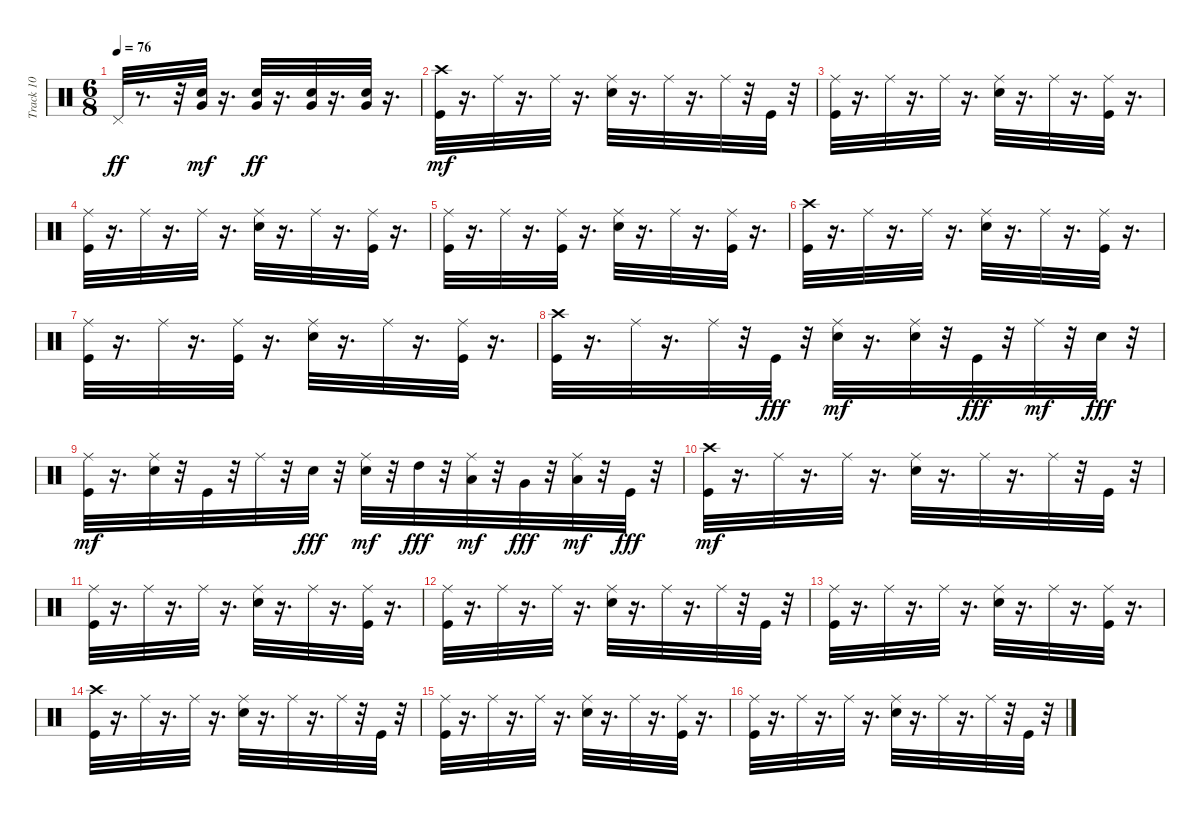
\track ("Track 10" "Track 10") {instrument percussion}
\staff {score}
\articulation defaults
\ts (6 8)
\tempo 76
\clef neutral
\ks c "Pedal Hi-Hat (hit)".32{dy ff}
r.8{d} r.32 ("Electric Snare (hit)" "Very Low Tom (hit)").32{dy mf} r.16{d} ("Electric Snare (hit)" "Very Low Tom (hit)").32{dy ff} r.16{d} ("Electric Snare (hit)" "Very Low Tom (hit)").32 r.16{d} ("Electric Snare (hit)" "Very Low Tom (hit)").32 r.16{d} |
("Kick (hit)" "Crash high (hit)").32{dy mf} r.16{d} "Ride (middle)".32 r.16{d} "Ride (middle)".32 r.16{d} ("Electric Snare (hit)" "Ride (middle)").32 r.16{d} "Ride (middle)".32 r.16{d} "Ride (middle)".32 r.32 "Kick (hit)".32 r.32 |
("Kick (hit)" "Ride (middle)").32 r.16{d} "Ride (middle)".32 r.16{d} "Ride (middle)".32 r.16{d} ("Electric Snare (hit)" "Ride (middle)").32 r.16{d} "Ride (middle)".32 r.16{d} ("Kick (hit)" "Ride (middle)").32 r.16{d} |
("Kick (hit)" "Ride (middle)").32 r.16{d} "Ride (middle)".32 r.16{d} "Ride (middle)".32 r.16{d} ("Electric Snare (hit)" "Ride (middle)").32 r.16{d} "Ride (middle)".32 r.16{d} ("Kick (hit)" "Ride (middle)").32 r.16{d} |
("Kick (hit)" "Ride (middle)").32 r.16{d} "Ride (middle)".32 r.16{d} ("Kick (hit)" "Ride (middle)").32 r.16{d} ("Electric Snare (hit)" "Ride (middle)").32 r.16{d} "Ride (middle)".32 r.16{d} ("Kick (hit)" "Ride (middle)").32 r.16{d} |
("Kick (hit)" "Crash high (hit)").32 r.16{d} "Ride (middle)".32 r.16{d} "Ride (middle)".32 r.16{d} ("Electric Snare (hit)" "Ride (middle)").32 r.16{d} "Ride (middle)".32 r.16{d} ("Kick (hit)" "Ride (middle)").32 r.16{d} |
("Kick (hit)" "Ride (middle)").32 r.16{d} "Ride (middle)".32 r.16{d} ("Kick (hit)" "Ride (middle)").32 r.16{d} ("Electric Snare (hit)" "Ride (middle)").32 r.16{d} "Ride (middle)".32 r.16{d} ("Kick (hit)" "Ride (middle)").32 r.16{d} |
("Kick (hit)" "Crash high (hit)").32 r.16{d} "Ride (middle)".32 r.16{d} "Ride (middle)".32 r.32 "Kick (hit)".32{dy fff} r.32 ("Electric Snare (hit)" "Ride (middle)").32{dy mf} r.16{d} ("Electric Snare (hit)" "Ride (middle)").32 r.32 "Kick (hit)".32{dy fff} r.32 "Ride (middle)".32{dy mf} r.32 "Electric Snare (hit)".32{dy fff} r.32 |
("Kick (hit)" "Ride (middle)").32{dy mf} r.16{d} ("Electric Snare (hit)" "Ride (middle)").32 r.32 "Kick (hit)".32 r.32 "Ride (middle)".32 r.32 "Electric Snare (hit)".32{dy fff} r.32 ("Electric Snare (hit)" "Ride (middle)").32{dy mf} r.32 "High Tom (hit)".32{dy fff} r.32 ("Low Tom (hit)" "Ride (middle)").32{dy mf} r.32 "Very Low Tom (hit)".32{dy fff} r.32 ("Low Floor Tom (hit)" "Ride (middle)").32{dy mf} r.32 "Kick (hit)".32{dy fff} r.32 |
("Kick (hit)" "Crash high (hit)").32{dy mf} r.16{d} "Ride (middle)".32 r.16{d} "Ride (middle)".32 r.16{d} ("Electric Snare (hit)" "Ride (middle)").32 r.16{d} "Ride (middle)".32 r.16{d} "Ride (middle)".32 r.32 "Kick (hit)".32 r.32 |
("Kick (hit)" "Ride (middle)").32 r.16{d} "Ride (middle)".32 r.16{d} "Ride (middle)".32 r.16{d} ("Electric Snare (hit)" "Ride (middle)").32 r.16{d} "Ride (middle)".32 r.16{d} ("Kick (hit)" "Ride (middle)").32 r.16{d} |
("Kick (hit)" "Ride (middle)").32 r.16{d} "Ride (middle)".32 r.16{d} "Ride (middle)".32 r.16{d} ("Electric Snare (hit)" "Ride (middle)").32 r.16{d} "Ride (middle)".32 r.16{d} "Ride (middle)".32 r.32 "Kick (hit)".32 r.32 |
("Kick (hit)" "Ride (middle)").32 r.16{d} "Ride (middle)".32 r.16{d} "Ride (middle)".32 r.16{d} ("Electric Snare (hit)" "Ride (middle)").32 r.16{d} "Ride (middle)".32 r.16{d} ("Kick (hit)" "Ride (middle)").32 r.16{d} |
("Kick (hit)" "Crash high (hit)").32 r.16{d} "Ride (middle)".32 r.16{d} "Ride (middle)".32 r.16{d} ("Electric Snare (hit)" "Ride (middle)").32 r.16{d} "Ride (middle)".32 r.16{d} "Ride (middle)".32 r.32 "Kick (hit)".32 r.32 |
("Kick (hit)" "Ride (middle)").32 r.16{d} "Ride (middle)".32 r.16{d} "Ride (middle)".32 r.16{d} ("Electric Snare (hit)" "Ride (middle)").32 r.16{d} "Ride (middle)".32 r.16{d} ("Kick (hit)" "Ride (middle)").32 r.16{d} |
("Kick (hit)" "Ride (middle)").32 r.16{d} "Ride (middle)".32 r.16{d} "Ride (middle)".32 r.16{d} ("Electric Snare (hit)" "Ride (middle)").32 r.16{d} "Ride (middle)".32 r.16{d} "Ride (middle)".32 r.32 "Kick (hit)".32 r.32
